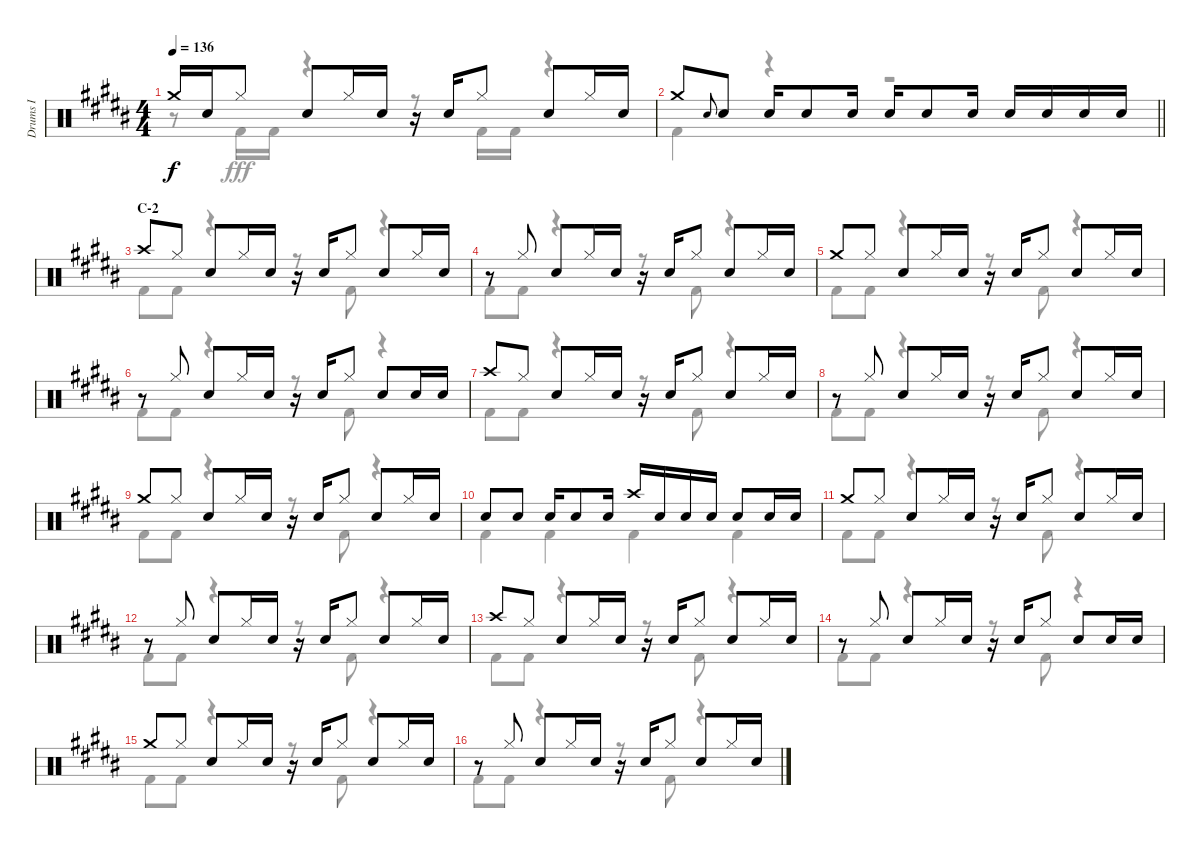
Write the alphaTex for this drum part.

\track ("Drums I" "Drums I") {instrument percussion}
\staff {score}
\articulation defaults
\voice
\ts (4 4)
\tempo 136
\clef neutral
\ks b "Crash medium (hit)".16{dy f} "Snare (hit) 2".16 "Hi-Hat (closed)".8 "Snare (hit) 2".8 "Hi-Hat (closed)".16 "Snare (hit) 2".16
r.16 "Snare (hit) 2".16 "Hi-Hat (closed)".8 "Snare (hit) 2".8 "Hi-Hat (closed)".16 "Snare (hit) 2".16 |
\barLineRight lightlight "Crash medium (hit)".8 "Snare (hit) 2".8{gr onbeat} "Snare (hit) 2".8 "Snare (hit) 2".16 "Snare (hit) 2".8 "Snare (hit) 2".16 "Snare (hit) 2".16 "Snare (hit) 2".8 "Snare (hit) 2".16 "Snare (hit) 2".16 "Snare (hit) 2".16 "Snare (hit) 2".16 "Snare (hit) 2".16
|
\section ("" "C-2")
"Crash high (hit)".8 "Hi-Hat (closed)".8 "Snare (hit) 2".8 "Hi-Hat (closed)".16 "Snare (hit) 2".16 r.16 "Snare (hit) 2".16 "Hi-Hat (closed)".8 "Snare (hit) 2".8 "Hi-Hat (closed)".16 "Snare (hit) 2".16 |
r.8 "Hi-Hat (closed)".8 "Snare (hit) 2".8 "Hi-Hat (closed)".16 "Snare (hit) 2".16 r.16 "Snare (hit) 2".16 "Hi-Hat (closed)".8 "Snare (hit) 2".8 "Hi-Hat (closed)".16 "Snare (hit) 2".16 |
"Crash medium (hit)".8 "Hi-Hat (closed)".8 "Snare (hit) 2".8 "Hi-Hat (closed)".16 "Snare (hit) 2".16 r.16 "Snare (hit) 2".16 "Hi-Hat (closed)".8 "Snare (hit) 2".8 "Hi-Hat (closed)".16 "Snare (hit) 2".16 |
r.8 "Hi-Hat (closed)".8 "Snare (hit) 2".8 "Hi-Hat (closed)".16 "Snare (hit) 2".16 r.16 "Snare (hit) 2".16 "Hi-Hat (closed)".8 "Snare (hit) 2".8 "Snare (hit) 2".16 "Snare (hit) 2".16 |
"Crash high (hit)".8 "Hi-Hat (closed)".8 "Snare (hit) 2".8 "Hi-Hat (closed)".16 "Snare (hit) 2".16 r.16 "Snare (hit) 2".16 "Hi-Hat (closed)".8 "Snare (hit) 2".8 "Hi-Hat (closed)".16 "Snare (hit) 2".16 |
r.8 "Hi-Hat (closed)".8 "Snare (hit) 2".8 "Hi-Hat (closed)".16 "Snare (hit) 2".16 r.16 "Snare (hit) 2".16 "Hi-Hat (closed)".8 "Snare (hit) 2".8 "Hi-Hat (closed)".16 "Snare (hit) 2".16 |
"Crash medium (hit)".8 "Hi-Hat (closed)".8 "Snare (hit) 2".8 "Hi-Hat (closed)".16 "Snare (hit) 2".16 r.16 "Snare (hit) 2".16 "Hi-Hat (closed)".8 "Snare (hit) 2".8 "Hi-Hat (closed)".16 "Snare (hit) 2".16 |
"Snare (hit) 2".8 "Snare (hit) 2".8 "Snare (hit) 2".16 "Snare (hit) 2".8 "Snare (hit) 2".16 "Crash high (hit)".16 "Snare (hit) 2".16 "Snare (hit) 2".16 "Snare (hit) 2".16 "Snare (hit) 2".8 "Snare (hit) 2".16 "Snare (hit) 2".16 |
"Crash medium (hit)".8 "Hi-Hat (closed)".8 "Snare (hit) 2".8 "Hi-Hat (closed)".16 "Snare (hit) 2".16 r.16 "Snare (hit) 2".16 "Hi-Hat (closed)".8 "Snare (hit) 2".8 "Hi-Hat (closed)".16 "Snare (hit) 2".16 |
r.8 "Hi-Hat (closed)".8 "Snare (hit) 2".8 "Hi-Hat (closed)".16 "Snare (hit) 2".16 r.16 "Snare (hit) 2".16 "Hi-Hat (closed)".8 "Snare (hit) 2".8 "Hi-Hat (closed)".16 "Snare (hit) 2".16 |
"Crash high (hit)".8 "Hi-Hat (closed)".8 "Snare (hit) 2".8 "Hi-Hat (closed)".16 "Snare (hit) 2".16 r.16 "Snare (hit) 2".16 "Hi-Hat (closed)".8 "Snare (hit) 2".8 "Hi-Hat (closed)".16 "Snare (hit) 2".16 |
r.8 "Hi-Hat (closed)".8 "Snare (hit) 2".8 "Hi-Hat (closed)".16 "Snare (hit) 2".16 r.16 "Snare (hit) 2".16 "Hi-Hat (closed)".8 "Snare (hit) 2".8 "Snare (hit) 2".16 "Snare (hit) 2".16 |
"Crash medium (hit)".8 "Hi-Hat (closed)".8 "Snare (hit) 2".8 "Hi-Hat (closed)".16 "Snare (hit) 2".16 r.16 "Snare (hit) 2".16 "Hi-Hat (closed)".8 "Snare (hit) 2".8 "Hi-Hat (closed)".16 "Snare (hit) 2".16 |
r.8 "Hi-Hat (closed)".8 "Snare (hit) 2".8 "Hi-Hat (closed)".16 "Snare (hit) 2".16 r.16 "Snare (hit) 2".16 "Hi-Hat (closed)".8 "Snare (hit) 2".8 "Hi-Hat (closed)".16 "Snare (hit) 2".16
\voice
\clef neutral
\ottava regular
\simile none
\ks b
r.8{dy fff} "Kick (hit) 2".16 "Kick (hit) 2".16 r.4 r.8 "Kick (hit) 2".16 "Kick (hit) 2".16 r.4 |
\barLineRight lightlight "Kick (hit) 2".4
r.4 r.2 |
"Kick (hit) 2".8 "Kick (hit) 2".8 r.4 r.8 "Kick (hit) 2".8 r.4 |
"Kick (hit) 2".8 "Kick (hit) 2".8 r.4 r.8 "Kick (hit) 2".8 r.4 |
"Kick (hit) 2".8 "Kick (hit) 2".8 r.4 r.8 "Kick (hit) 2".8 r.4 |
"Kick (hit) 2".8 "Kick (hit) 2".8 r.4 r.8 "Kick (hit) 2".8 r.4 |
"Kick (hit) 2".8 "Kick (hit) 2".8 r.4 r.8 "Kick (hit) 2".8 r.4 |
"Kick (hit) 2".8 "Kick (hit) 2".8 r.4 r.8 "Kick (hit) 2".8 r.4 |
"Kick (hit) 2".8 "Kick (hit) 2".8 r.4 r.8 "Kick (hit) 2".8 r.4 |
"Kick (hit) 2".4 "Kick (hit) 2".4 "Kick (hit) 2".4 "Kick (hit) 2".4 |
"Kick (hit) 2".8 "Kick (hit) 2".8 r.4 r.8 "Kick (hit) 2".8 r.4 |
"Kick (hit) 2".8 "Kick (hit) 2".8 r.4 r.8 "Kick (hit) 2".8 r.4 |
"Kick (hit) 2".8 "Kick (hit) 2".8 r.4 r.8 "Kick (hit) 2".8 r.4 |
"Kick (hit) 2".8 "Kick (hit) 2".8 r.4 r.8 "Kick (hit) 2".8 r.4 |
"Kick (hit) 2".8 "Kick (hit) 2".8 r.4 r.8 "Kick (hit) 2".8 r.4 |
"Kick (hit) 2".8 "Kick (hit) 2".8 r.4 r.8 "Kick (hit) 2".8 r.4
